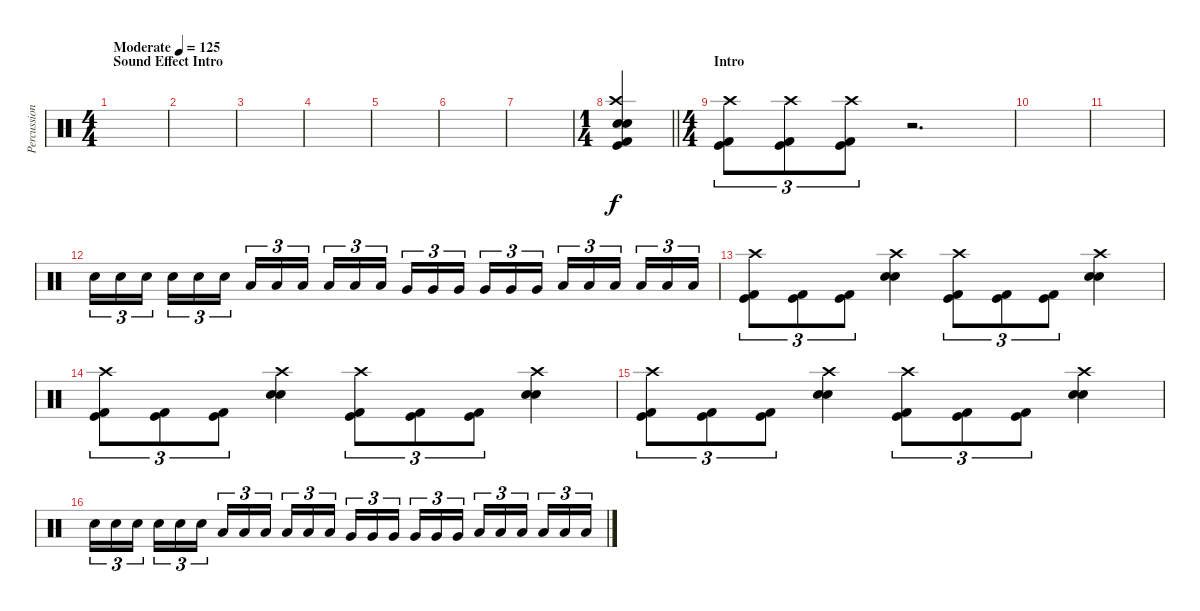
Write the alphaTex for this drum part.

\track ("Percussion" "Percussion") {instrument percussion}
\staff {score}
\articulation defaults
\ts (4 4)
\section ("" "Sound Effect Intro")
\tempo (125 "Moderate")
\clef neutral
\ks c
|
|
|
|
|
|
|
\ts (1 4)
\barLineRight lightlight
("Kick (hit) 2" "Kick (hit)" "Crash high (hit)" "Electric Snare (hit)" "Electric Snare (hit)").4 |
\ts (4 4)
\section ("" "Intro")
("Kick (hit)" "Kick (hit) 2" "Crash high (hit)").8{tu (3 2)} ("Kick (hit)" "Kick (hit) 2" "Crash high (hit)").8{tu (3 2)} ("Kick (hit)" "Kick (hit) 2" "Crash high (hit)").8{tu (3 2)} r.2{d} |
|
|
"Electric Snare (hit)".16{tu (3 2)} "Electric Snare (hit)".16{tu (3 2)} "Electric Snare (hit)".16{tu (3 2) beam splitsecondary} "Electric Snare (hit)".16{tu (3 2)} "Electric Snare (hit)".16{tu (3 2)} "Electric Snare (hit)".16{tu (3 2)} "Low Tom (hit)".16{tu (3 2)} "Low Tom (hit)".16{tu (3 2)} "Low Tom (hit)".16{tu (3 2) beam splitsecondary} "Low Tom (hit)".16{tu (3 2)} "Low Tom (hit)".16{tu (3 2)} "Low Tom (hit)".16{tu (3 2)} "Very Low Tom (hit)".16{tu (3 2)} "Very Low Tom (hit)".16{tu (3 2)} "Very Low Tom (hit)".16{tu (3 2) beam splitsecondary} "Very Low Tom (hit)".16{tu (3 2)} "Very Low Tom (hit)".16{tu (3 2)} "Very Low Tom (hit)".16{tu (3 2)} "Low Floor Tom (hit)".16{tu (3 2)} "Low Floor Tom (hit)".16{tu (3 2)} "Low Floor Tom (hit)".16{tu (3 2) beam splitsecondary} "Low Floor Tom (hit)".16{tu (3 2)} "Low Floor Tom (hit)".16{tu (3 2)} "Low Floor Tom (hit)".16{tu (3 2)} |
("Crash high (hit)" "Kick (hit) 2" "Kick (hit)").8{tu (3 2)} ("Kick (hit) 2" "Kick (hit)").8{tu (3 2)} ("Kick (hit) 2" "Kick (hit)").8{tu (3 2)} ("Crash high (hit)" "Electric Snare (hit)" "Electric Snare (hit)").4 ("Crash high (hit)" "Kick (hit) 2" "Kick (hit)").8{tu (3 2)} ("Kick (hit) 2" "Kick (hit)").8{tu (3 2)} ("Kick (hit) 2" "Kick (hit)").8{tu (3 2)} ("Crash high (hit)" "Electric Snare (hit)" "Electric Snare (hit)").4 |
("Crash high (hit)" "Kick (hit) 2" "Kick (hit)").8{tu (3 2)} ("Kick (hit) 2" "Kick (hit)").8{tu (3 2)} ("Kick (hit) 2" "Kick (hit)").8{tu (3 2)} ("Crash high (hit)" "Electric Snare (hit)" "Electric Snare (hit)").4 ("Crash high (hit)" "Kick (hit) 2" "Kick (hit)").8{tu (3 2)} ("Kick (hit) 2" "Kick (hit)").8{tu (3 2)} ("Kick (hit) 2" "Kick (hit)").8{tu (3 2)} ("Crash high (hit)" "Electric Snare (hit)" "Electric Snare (hit)").4 |
("Crash high (hit)" "Kick (hit) 2" "Kick (hit)").8{tu (3 2)} ("Kick (hit) 2" "Kick (hit)").8{tu (3 2)} ("Kick (hit) 2" "Kick (hit)").8{tu (3 2)} ("Crash high (hit)" "Electric Snare (hit)" "Electric Snare (hit)").4 ("Crash high (hit)" "Kick (hit) 2" "Kick (hit)").8{tu (3 2)} ("Kick (hit) 2" "Kick (hit)").8{tu (3 2)} ("Kick (hit) 2" "Kick (hit)").8{tu (3 2)} ("Crash high (hit)" "Electric Snare (hit)" "Electric Snare (hit)").4 |
"Electric Snare (hit)".16{tu (3 2)} "Electric Snare (hit)".16{tu (3 2)} "Electric Snare (hit)".16{tu (3 2) beam splitsecondary} "Electric Snare (hit)".16{tu (3 2)} "Electric Snare (hit)".16{tu (3 2)} "Electric Snare (hit)".16{tu (3 2)} "Low Tom (hit)".16{tu (3 2)} "Low Tom (hit)".16{tu (3 2)} "Low Tom (hit)".16{tu (3 2) beam splitsecondary} "Low Tom (hit)".16{tu (3 2)} "Low Tom (hit)".16{tu (3 2)} "Low Tom (hit)".16{tu (3 2)} "Very Low Tom (hit)".16{tu (3 2)} "Very Low Tom (hit)".16{tu (3 2)} "Very Low Tom (hit)".16{tu (3 2) beam splitsecondary} "Very Low Tom (hit)".16{tu (3 2)} "Very Low Tom (hit)".16{tu (3 2)} "Very Low Tom (hit)".16{tu (3 2)} "Low Floor Tom (hit)".16{tu (3 2)} "Low Floor Tom (hit)".16{tu (3 2)} "Low Floor Tom (hit)".16{tu (3 2) beam splitsecondary} "Low Floor Tom (hit)".16{tu (3 2)} "Low Floor Tom (hit)".16{tu (3 2)} "Low Floor Tom (hit)".16{tu (3 2)}
